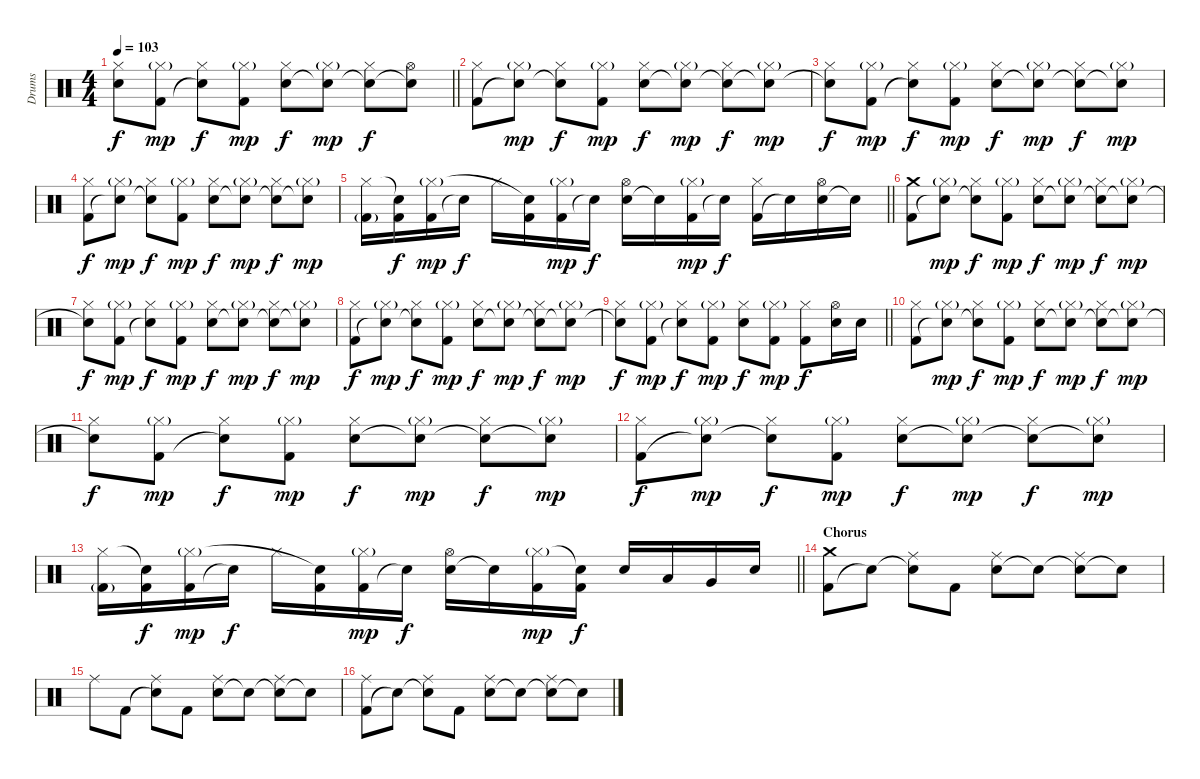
\track ("Drums" "Drums") {instrument percussion}
\staff {score}
\articulation defaults
\ts (4 4)
\tempo 103
\clef neutral
\barLineRight lightlight
\ks c
("Snare (hit)"{t} "Hi-Hat (closed)").8{dy f} ("Kick (hit) 2" "Hi-Hat (closed)"{g}).8{dy mp} ("Snare (hit)"{t} "Hi-Hat (closed)").8{dy f} ("Kick (hit) 2" "Hi-Hat (closed)"{g}).8{dy mp} ("Electric Snare (hit)" "Hi-Hat (closed)").8{dy f} ("Snare (hit)"{t} "Hi-Hat (closed)"{g}).8{dy mp} ("Snare (hit)"{t} "Hi-Hat (closed)").8{dy f} ("Snare (hit)"{t} "Hi-Hat (open)").8 |
("Kick (hit) 2" "Hi-Hat (closed)").8 ("Snare (hit)"{t} "Hi-Hat (closed)"{g}).8{dy mp} ("Snare (hit)"{t} "Hi-Hat (closed)").8{dy f} ("Kick (hit) 2" "Hi-Hat (closed)"{g}).8{dy mp} ("Electric Snare (hit)" "Hi-Hat (closed)").8{dy f} ("Snare (hit)"{t} "Hi-Hat (closed)"{g}).8{dy mp} ("Snare (hit)"{t} "Hi-Hat (closed)").8{dy f} ("Snare (hit)"{t} "Hi-Hat (closed)"{g}).8{dy mp} |
("Snare (hit)"{t} "Hi-Hat (closed)").8{dy f} ("Kick (hit) 2" "Hi-Hat (closed)"{g}).8{dy mp} ("Snare (hit)"{t} "Hi-Hat (closed)").8{dy f} ("Kick (hit) 2" "Hi-Hat (closed)"{g}).8{dy mp} ("Electric Snare (hit)" "Hi-Hat (closed)").8{dy f} ("Snare (hit)"{t} "Hi-Hat (closed)"{g}).8{dy mp} ("Snare (hit)"{t} "Hi-Hat (closed)").8{dy f} ("Snare (hit)"{t} "Hi-Hat (closed)"{g}).8{dy mp} |
("Kick (hit) 2" "Hi-Hat (closed)").8{dy f} ("Snare (hit)"{t} "Hi-Hat (closed)"{g}).8{dy mp} ("Snare (hit)"{t} "Hi-Hat (closed)").8{dy f} ("Kick (hit) 2" "Hi-Hat (closed)"{g}).8{dy mp} ("Electric Snare (hit)" "Hi-Hat (closed)").8{dy f} ("Snare (hit)"{t} "Hi-Hat (closed)"{g}).8{dy mp} ("Snare (hit)"{t} "Hi-Hat (closed)").8{dy f} ("Snare (hit)"{t} "Hi-Hat (closed)"{g}).8{dy mp} |
\barLineRight lightlight
("Kick (hit) 2"{g} "Hi-Hat (closed)").16 ("Kick (hit) 2" "Snare (hit)"{t}).16{dy f} ("Kick (hit) 2" "Hi-Hat (closed)"{g}).16{dy mp} "Snare (hit)"{t}.16{dy f} "Hi-Hat (closed)".16 ("Kick (hit) 2" "Snare (hit)"{t}).16 ("Kick (hit) 2" "Hi-Hat (closed)"{g}).16{dy mp} "Snare (hit)"{t}.16{dy f} ("Electric Snare (hit)" "Hi-Hat (open)").16 "Snare (hit)"{t}.16 ("Kick (hit) 2" "Hi-Hat (closed)"{g}).16{dy mp} "Snare (hit)"{t}.16{dy f} ("Kick (hit) 2" "Hi-Hat (closed)").16 "Snare (hit)"{t}.16 ("Electric Snare (hit)" "Hi-Hat (open)").16 "Snare (hit)"{t}.16 |
("Kick (hit) 2" "Crash medium (hit)").8 ("Snare (hit)"{t} "Hi-Hat (closed)"{g}).8{dy mp} ("Snare (hit)"{t} "Hi-Hat (closed)").8{dy f} ("Kick (hit) 2" "Hi-Hat (closed)"{g}).8{dy mp} ("Electric Snare (hit)" "Hi-Hat (closed)").8{dy f} ("Snare (hit)"{t} "Hi-Hat (closed)"{g}).8{dy mp} ("Snare (hit)"{t} "Hi-Hat (closed)").8{dy f} ("Snare (hit)"{t} "Hi-Hat (closed)"{g}).8{dy mp} |
("Snare (hit)"{t} "Hi-Hat (closed)").8{dy f} ("Kick (hit) 2" "Hi-Hat (closed)"{g}).8{dy mp} ("Snare (hit)"{t} "Hi-Hat (closed)").8{dy f} ("Kick (hit) 2" "Hi-Hat (closed)"{g}).8{dy mp} ("Electric Snare (hit)" "Hi-Hat (closed)").8{dy f} ("Snare (hit)"{t} "Hi-Hat (closed)"{g}).8{dy mp} ("Snare (hit)"{t} "Hi-Hat (closed)").8{dy f} ("Snare (hit)"{t} "Hi-Hat (closed)"{g}).8{dy mp} |
("Kick (hit) 2" "Hi-Hat (closed)").8{dy f} ("Snare (hit)"{t} "Hi-Hat (closed)"{g}).8{dy mp} ("Snare (hit)"{t} "Hi-Hat (closed)").8{dy f} ("Kick (hit) 2" "Hi-Hat (closed)"{g}).8{dy mp} ("Electric Snare (hit)" "Hi-Hat (closed)").8{dy f} ("Snare (hit)"{t} "Hi-Hat (closed)"{g}).8{dy mp} ("Snare (hit)"{t} "Hi-Hat (closed)").8{dy f} ("Snare (hit)"{t} "Hi-Hat (closed)"{g}).8{dy mp} |
\barLineRight lightlight
("Snare (hit)"{t} "Hi-Hat (closed)").8{dy f} ("Kick (hit) 2" "Hi-Hat (closed)"{g}).8{dy mp} ("Snare (hit)"{t} "Hi-Hat (closed)").8{dy f} ("Kick (hit) 2" "Hi-Hat (closed)"{g}).8{dy mp} ("Electric Snare (hit)" "Hi-Hat (closed)").8{dy f} ("Kick (hit) 2" "Hi-Hat (closed)"{g}).8{dy mp} ("Kick (hit) 2" "Hi-Hat (closed)").8{dy f} ("Electric Snare (hit)" "Hi-Hat (open)").16 "Electric Snare (hit)".16 |
("Kick (hit) 2" "Hi-Hat (closed)").8 ("Snare (hit)"{t} "Hi-Hat (closed)"{g}).8{dy mp} ("Snare (hit)"{t} "Hi-Hat (closed)").8{dy f} ("Kick (hit) 2" "Hi-Hat (closed)"{g}).8{dy mp} ("Electric Snare (hit)" "Hi-Hat (closed)").8{dy f} ("Snare (hit)"{t} "Hi-Hat (closed)"{g}).8{dy mp} ("Snare (hit)"{t} "Hi-Hat (closed)").8{dy f} ("Snare (hit)"{t} "Hi-Hat (closed)"{g}).8{dy mp} |
("Snare (hit)"{t} "Hi-Hat (closed)").8{dy f} ("Kick (hit) 2" "Hi-Hat (closed)"{g}).8{dy mp} ("Snare (hit)"{t} "Hi-Hat (closed)").8{dy f} ("Kick (hit) 2" "Hi-Hat (closed)"{g}).8{dy mp} ("Electric Snare (hit)" "Hi-Hat (closed)").8{dy f} ("Snare (hit)"{t} "Hi-Hat (closed)"{g}).8{dy mp} ("Snare (hit)"{t} "Hi-Hat (closed)").8{dy f} ("Snare (hit)"{t} "Hi-Hat (closed)"{g}).8{dy mp} |
("Kick (hit) 2" "Hi-Hat (closed)").8{dy f} ("Snare (hit)"{t} "Hi-Hat (closed)"{g}).8{dy mp} ("Snare (hit)"{t} "Hi-Hat (closed)").8{dy f} ("Kick (hit) 2" "Hi-Hat (closed)"{g}).8{dy mp} ("Electric Snare (hit)" "Hi-Hat (closed)").8{dy f} ("Snare (hit)"{t} "Hi-Hat (closed)"{g}).8{dy mp} ("Snare (hit)"{t} "Hi-Hat (closed)").8{dy f} ("Snare (hit)"{t} "Hi-Hat (closed)"{g}).8{dy mp} |
\barLineRight lightlight
("Kick (hit) 2"{g} "Hi-Hat (closed)").16 ("Kick (hit) 2" "Snare (hit)"{t}).16{dy f} ("Kick (hit) 2" "Hi-Hat (closed)"{g}).16{dy mp} "Snare (hit)"{t}.16{dy f} "Hi-Hat (closed)".16 ("Kick (hit) 2" "Snare (hit)"{t}).16 ("Kick (hit) 2" "Hi-Hat (closed)"{g}).16{dy mp} "Snare (hit)"{t}.16{dy f} ("Electric Snare (hit)" "Hi-Hat (open)").16 "Snare (hit)"{t}.16 ("Kick (hit) 2" "Hi-Hat (closed)"{g}).16{dy mp} ("Kick (hit) 2" "Snare (hit)"{t}).16{dy f} "Electric Snare (hit)".16 "Low Tom (hit)".16 "Very Low Tom (hit)".16 "Electric Snare (hit)".16 |
\section ("" "Chorus")
("Kick (hit) 2" "Crash medium (hit)").8 "Snare (hit)"{t}.8 ("Snare (hit)"{t} "Ride (middle)").8 "Kick (hit) 2".8 ("Electric Snare (hit)" "Ride (middle)").8 "Snare (hit)"{t}.8 ("Snare (hit)"{t} "Ride (middle)").8 "Snare (hit)"{t}.8 |
"Ride (middle)".8 "Kick (hit) 2".8 ("Snare (hit)"{t} "Ride (middle)").8 "Kick (hit) 2".8 ("Electric Snare (hit)" "Ride (middle)").8 "Snare (hit)"{t}.8 ("Snare (hit)"{t} "Ride (middle)").8 "Snare (hit)"{t}.8 |
("Kick (hit) 2" "Ride (middle)").8 "Snare (hit)"{t}.8 ("Snare (hit)"{t} "Ride (middle)").8 "Kick (hit) 2".8 ("Electric Snare (hit)" "Ride (middle)").8 "Snare (hit)"{t}.8 ("Snare (hit)"{t} "Ride (middle)").8 "Snare (hit)"{t}.8
